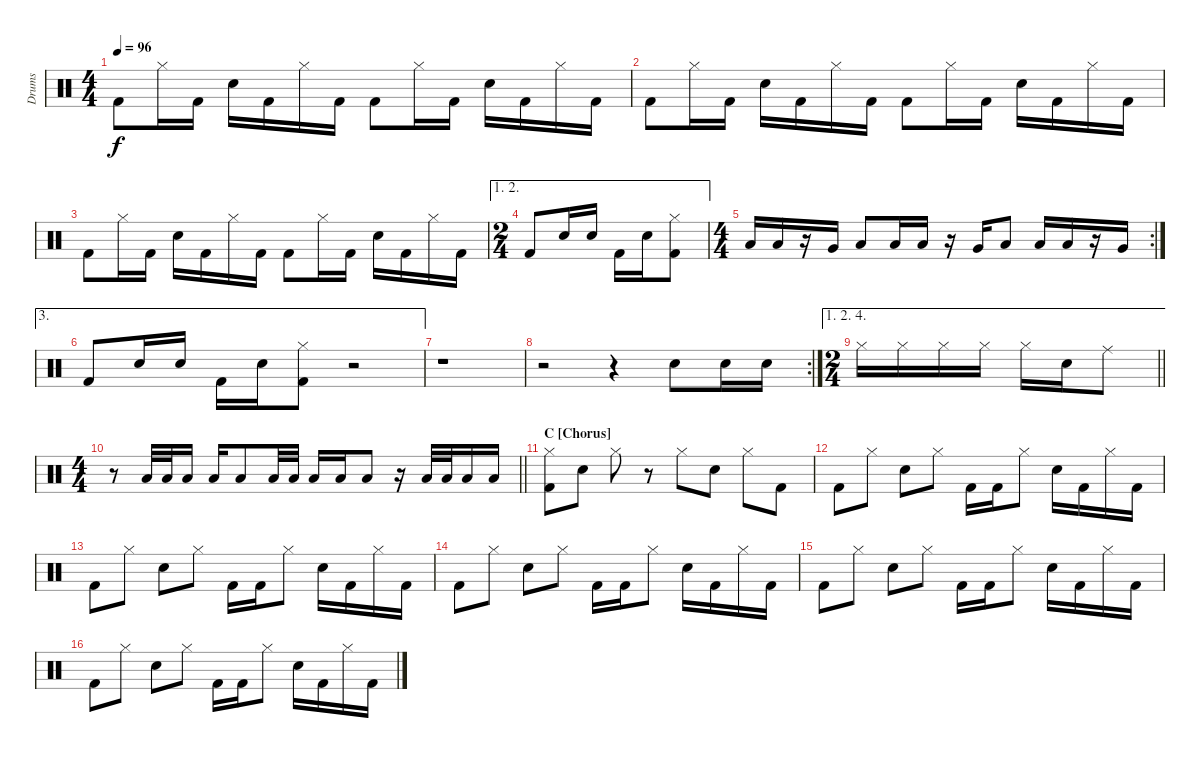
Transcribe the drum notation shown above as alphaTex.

\track ("Drums" "Drums") {instrument percussion}
\staff {score}
\articulation defaults
\ts (4 4)
\tempo 96
\clef neutral
\ks c "Kick (hit) 2".8{dy f} "Hi-Hat (closed)".16 "Kick (hit) 2".16 "Snare (hit) 2".16 "Kick (hit) 2".16 "Hi-Hat (closed)".16 "Kick (hit) 2".16 "Kick (hit) 2".8 "Hi-Hat (closed)".16 "Kick (hit) 2".16 "Snare (hit) 2".16 "Kick (hit) 2".16 "Hi-Hat (closed)".16 "Kick (hit) 2".16
|
"Kick (hit) 2".8 "Hi-Hat (closed)".16 "Kick (hit) 2".16 "Snare (hit) 2".16 "Kick (hit) 2".16 "Hi-Hat (closed)".16 "Kick (hit) 2".16 "Kick (hit) 2".8 "Hi-Hat (closed)".16 "Kick (hit) 2".16 "Snare (hit) 2".16 "Kick (hit) 2".16 "Hi-Hat (closed)".16 "Kick (hit) 2".16 |
"Kick (hit) 2".8 "Hi-Hat (closed)".16 "Kick (hit) 2".16 "Snare (hit) 2".16 "Kick (hit) 2".16 "Hi-Hat (closed)".16 "Kick (hit) 2".16 "Kick (hit) 2".8 "Hi-Hat (closed)".16 "Kick (hit) 2".16 "Snare (hit) 2".16 "Kick (hit) 2".16 "Hi-Hat (closed)".16 "Kick (hit) 2".16 |
\ae (1 2)
\ts (2 4)
"Kick (hit) 2".8 "Snare (hit) 2".16 "Snare (hit) 2".16 "Kick (hit) 2".16 "Snare (hit) 2".16 ("Hi-Hat (closed)" "Kick (hit) 2").8 |
\rc 2
\ts (4 4)
"Low Tom (hit)".16 "Low Tom (hit)".16 r.16 "Very Low Tom (hit)".16 "Low Tom (hit)".8 "Low Tom (hit)".16 "Low Tom (hit)".16 r.16 "Very Low Tom (hit)".16 "Low Tom (hit)".8 "Low Tom (hit)".16 "Low Tom (hit)".16 r.16 "Very Low Tom (hit)".16 |
\ae 3 "Kick (hit) 2".8 "Snare (hit) 2".16 "Snare (hit) 2".16 "Kick (hit) 2".16 "Snare (hit) 2".16
("Hi-Hat (closed)" "Kick (hit) 2").8 r.2 |
r.1 |
\rc 2
r.2 r.4 "Snare (hit) 2".8 "Snare (hit) 2".16 "Snare (hit) 2".16 |
\ae (1 2 4)
\ts (2 4)
\barLineRight lightlight "Hi-Hat (closed)".16 "Hi-Hat (closed)".16 "Hi-Hat (closed)".16 "Hi-Hat (closed)".16 "Hi-Hat (closed)".16 "Snare (hit) 2".16 "Ride (middle)".8
|
\ts (4 4)
\barLineRight lightlight
r.8 "Low Tom (hit)".32 "Low Tom (hit)".32 "Low Tom (hit)".16 "Low Tom (hit)".16 "Low Tom (hit)".8 "Low Tom (hit)".32 "Low Tom (hit)".32 "Low Tom (hit)".16 "Low Tom (hit)".16 "Low Tom (hit)".8 r.16 "Low Tom (hit)".32 "Low Tom (hit)".32 "Low Tom (hit)".16 "Low Tom (hit)".16 |
\section ("" "C [Chorus]")
("Hi-Hat (closed)" "Kick (hit) 2").8 "Snare (hit) 2".8 "Hi-Hat (closed)".8 r.8 "Hi-Hat (closed)".8 "Snare (hit) 2".8 "Hi-Hat (closed)".8 "Kick (hit) 2".8 |
"Kick (hit) 2".8 "Hi-Hat (closed)".8 "Snare (hit) 2".8 "Hi-Hat (closed)".8 "Kick (hit) 2".16 "Kick (hit) 2".16 "Hi-Hat (closed)".8 "Snare (hit) 2".16 "Kick (hit) 2".16 "Hi-Hat (closed)".16 "Kick (hit) 2".16 |
"Kick (hit) 2".8 "Hi-Hat (closed)".8 "Snare (hit) 2".8 "Hi-Hat (closed)".8 "Kick (hit) 2".16 "Kick (hit) 2".16 "Hi-Hat (closed)".8 "Snare (hit) 2".16 "Kick (hit) 2".16 "Hi-Hat (closed)".16 "Kick (hit) 2".16 |
"Kick (hit) 2".8 "Hi-Hat (closed)".8 "Snare (hit) 2".8 "Hi-Hat (closed)".8 "Kick (hit) 2".16 "Kick (hit) 2".16 "Hi-Hat (closed)".8 "Snare (hit) 2".16 "Kick (hit) 2".16 "Hi-Hat (closed)".16 "Kick (hit) 2".16 |
"Kick (hit) 2".8 "Hi-Hat (closed)".8 "Snare (hit) 2".8 "Hi-Hat (closed)".8 "Kick (hit) 2".16 "Kick (hit) 2".16 "Hi-Hat (closed)".8 "Snare (hit) 2".16 "Kick (hit) 2".16 "Hi-Hat (closed)".16 "Kick (hit) 2".16 |
"Kick (hit) 2".8 "Hi-Hat (closed)".8 "Snare (hit) 2".8 "Hi-Hat (closed)".8 "Kick (hit) 2".16 "Kick (hit) 2".16 "Hi-Hat (closed)".8 "Snare (hit) 2".16 "Kick (hit) 2".16 "Hi-Hat (closed)".16 "Kick (hit) 2".16
